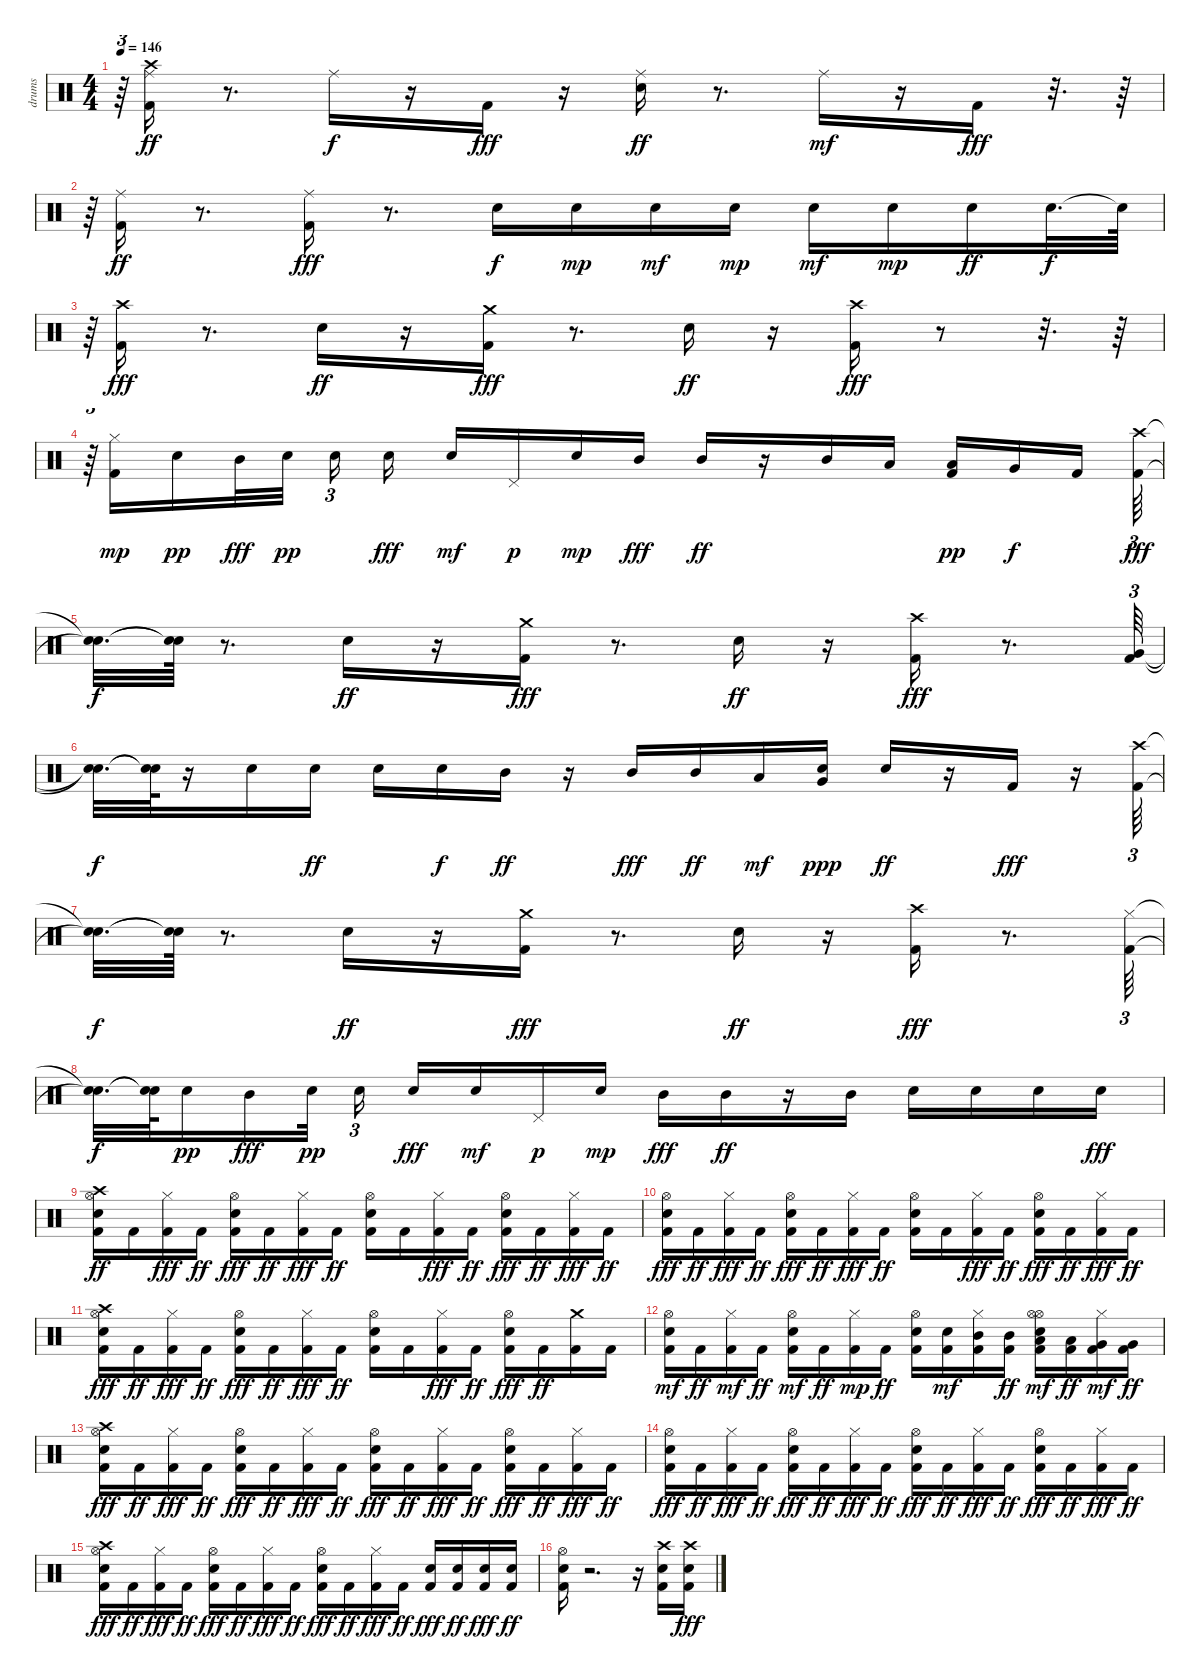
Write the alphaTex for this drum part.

\track ("drums" "drums") {instrument percussion}
\staff {score}
\articulation defaults
\ts (4 4)
\tempo 146
\clef neutral
\ks c
r.64{tu (3 2) dy mf} ("Crash high (hit)" "Kick (hit) 2" "Ride (middle)").16{dy ff} r.8{d} "Ride (middle)".16{dy f} r.16 "Kick (hit) 2".16{dy fff} r.16 ("Electric Snare (hit)" "Ride (middle)").16{dy ff} r.8{d} "Ride (middle)".16{dy mf} r.16 "Kick (hit) 2".16{dy fff} r.32{d} r.64 |
r.64{tu (3 2)} ("Kick (hit) 2" "Ride (middle)").16{dy ff} r.8{d} ("Kick (hit) 2" "Ride (middle)").16{dy fff} r.8{d} "Electric Snare (hit)".16{dy f} "Electric Snare (hit)".16{dy mp} "Electric Snare (hit)".16{dy mf} "Electric Snare (hit)".16{dy mp} "Electric Snare (hit)".16{dy mf} "Electric Snare (hit)".16{dy mp} "Electric Snare (hit)".16{dy ff} "Electric Snare (hit)".32{d dy f} "Snare (hit)"{t}.64 |
r.64{tu (3 2)} ("Crash high (hit)" "Kick (hit) 2").16{dy fff} r.8{d} "Electric Snare (hit)".16{dy ff} r.16 ("Kick (hit) 2" "Crash medium (hit)").16{dy fff} r.8{d} "Electric Snare (hit)".16{dy ff} r.16 ("Crash high (hit)" "Kick (hit) 2").16{dy fff} r.8 r.32{d} r.64 |
r.64{tu (3 2)} ("Kick (hit) 2" "Hi-Hat (closed)").16{dy mp} "Snare (hit) 2".16{dy pp} "Mid Tom (hit)".32{dy fff} "Snare (hit) 2".32{dy pp beam splitsecondary} "Snare (hit) 2".16{tu (3 2)} "Electric Snare (hit)".16{dy fff} "Electric Snare (hit)".16{dy mf} "Pedal Hi-Hat (hit)".16{dy p} "Snare (hit) 2".16{dy mp} "Mid Tom (hit)".16{dy fff} "Mid Tom (hit)".16{dy ff} r.16 "Mid Tom (hit)".16 "Low Tom (hit)".16 ("Low Tom (hit)" "Kick (hit) 2").16{dy pp} "Very Low Tom (hit)".16{dy f} "Kick (hit) 2".16{beam splitsecondary} ("Crash high (hit)" "Kick (hit) 2").64{tu (3 2) dy fff} |
("Snare (hit)"{t} "Snare (hit)"{t}).32{d dy f} ("Snare (hit)"{t} "Snare (hit)"{t}).64 r.8{d} "Electric Snare (hit)".16{dy ff} r.16 ("Kick (hit) 2" "Crash medium (hit)").16{dy fff} r.8{d} "Electric Snare (hit)".16{dy ff} r.16 ("Crash high (hit)" "Kick (hit) 2").16{dy fff} r.8{d} ("Very Low Tom (hit)" "Kick (hit) 2").64{tu (3 2)} |
("Snare (hit)"{t} "Snare (hit)"{t}).32{d dy f} ("Snare (hit)"{t} "Snare (hit)"{t}).64 r.16 "Electric Snare (hit)".16 "Snare (hit) 2".16{dy ff} "Electric Snare (hit)".16 "Electric Snare (hit)".16{dy f} "Mid Tom (hit)".16{dy ff} r.16 "Mid Tom (hit)".16{dy fff} "Mid Tom (hit)".16{dy ff} "Low Tom (hit)".16{dy mf} ("Very Low Tom (hit)" "Electric Snare (hit)").16{dy ppp} "Electric Snare (hit)".16{dy ff} r.16 "Kick (hit) 2".16{dy fff} r.16 ("Crash high (hit)" "Kick (hit) 2").64{tu (3 2)} |
("Snare (hit)"{t} "Snare (hit)"{t}).32{d dy f} ("Snare (hit)"{t} "Snare (hit)"{t}).64 r.8{d} "Electric Snare (hit)".16{dy ff} r.16 ("Kick (hit) 2" "Crash medium (hit)").16{dy fff} r.8{d} "Electric Snare (hit)".16{dy ff} r.16 ("Crash high (hit)" "Kick (hit) 2").16{dy fff} r.8{d} ("Hi-Hat (closed)" "Kick (hit) 2").64{tu (3 2)} |
("Snare (hit)"{t} "Snare (hit)"{t}).32{d dy f} ("Snare (hit)"{t} "Snare (hit)"{t}).64 "Snare (hit) 2".16{dy pp} "Mid Tom (hit)".16{dy fff} "Snare (hit) 2".32{dy pp beam splitsecondary} "Snare (hit) 2".16{tu (3 2)} "Electric Snare (hit)".16{dy fff} "Electric Snare (hit)".16{dy mf} "Pedal Hi-Hat (hit)".16{dy p} "Snare (hit) 2".16{dy mp} "Mid Tom (hit)".16{dy fff} "Mid Tom (hit)".16{dy ff} r.16 "Mid Tom (hit)".16 "Electric Snare (hit)".16 "Electric Snare (hit)".16 "Electric Snare (hit)".16 "Electric Snare (hit)".16{dy fff} |
("Hi-Hat (open)" "Crash high (hit)" "Kick (hit) 2" "Electric Snare (hit)").16{dy ff} "Kick (hit) 2".16 ("Hi-Hat (closed)" "Kick (hit) 2").16{dy fff} "Kick (hit) 2".16{dy ff} ("Hi-Hat (open)" "Electric Snare (hit)" "Kick (hit) 2").16{dy fff} "Kick (hit) 2".16{dy ff} ("Hi-Hat (closed)" "Kick (hit) 2").16{dy fff} "Kick (hit) 2".16{dy ff} ("Hi-Hat (open)" "Kick (hit) 2" "Electric Snare (hit)").16 "Kick (hit) 2".16 ("Hi-Hat (closed)" "Kick (hit) 2").16{dy fff} "Kick (hit) 2".16{dy ff} ("Hi-Hat (open)" "Electric Snare (hit)" "Kick (hit) 2").16{dy fff} "Kick (hit) 2".16{dy ff} ("Hi-Hat (closed)" "Kick (hit) 2").16{dy fff} "Kick (hit) 2".16{dy ff} |
("Hi-Hat (open)" "Electric Snare (hit)" "Kick (hit) 2").16{dy fff} "Kick (hit) 2".16{dy ff} ("Hi-Hat (closed)" "Kick (hit) 2").16{dy fff} "Kick (hit) 2".16{dy ff} ("Hi-Hat (open)" "Electric Snare (hit)" "Kick (hit) 2").16{dy fff} "Kick (hit) 2".16{dy ff} ("Hi-Hat (closed)" "Kick (hit) 2").16{dy fff} "Kick (hit) 2".16{dy ff} ("Hi-Hat (open)" "Kick (hit) 2" "Electric Snare (hit)").16 "Kick (hit) 2".16 ("Hi-Hat (closed)" "Kick (hit) 2").16{dy fff} "Kick (hit) 2".16{dy ff} ("Hi-Hat (open)" "Electric Snare (hit)" "Kick (hit) 2").16{dy fff} "Kick (hit) 2".16{dy ff} ("Hi-Hat (closed)" "Kick (hit) 2").16{dy fff} "Kick (hit) 2".16{dy ff} |
("Hi-Hat (open)" "Crash high (hit)" "Electric Snare (hit)" "Kick (hit) 2").16{dy fff} "Kick (hit) 2".16{dy ff} ("Hi-Hat (closed)" "Kick (hit) 2").16{dy fff} "Kick (hit) 2".16{dy ff} ("Hi-Hat (open)" "Electric Snare (hit)" "Kick (hit) 2").16{dy fff} "Kick (hit) 2".16{dy ff} ("Hi-Hat (closed)" "Kick (hit) 2").16{dy fff} "Kick (hit) 2".16{dy ff} ("Hi-Hat (open)" "Kick (hit) 2" "Electric Snare (hit)").16 "Kick (hit) 2".16 ("Hi-Hat (closed)" "Kick (hit) 2").16{dy fff} "Kick (hit) 2".16{dy ff} ("Hi-Hat (open)" "Electric Snare (hit)" "Kick (hit) 2").16{dy fff} "Kick (hit) 2".16{dy ff} ("Kick (hit) 2" "Crash medium (hit)").16 "Kick (hit) 2".16 |
("Kick (hit) 2" "Electric Snare (hit)" "Hi-Hat (open)").16{dy mf} "Kick (hit) 2".16{dy ff} ("Kick (hit) 2" "Hi-Hat (closed)").16{dy mf} "Kick (hit) 2".16{dy ff} ("Kick (hit) 2" "Electric Snare (hit)" "Hi-Hat (open)").16{dy mf} "Kick (hit) 2".16{dy ff} ("Kick (hit) 2" "Hi-Hat (closed)").16{dy mp} "Kick (hit) 2".16{dy ff} ("Hi-Hat (open)" "Kick (hit) 2" "Electric Snare (hit)").16 ("Kick (hit) 2" "Snare (hit) 2").16{dy mf} ("Mid Tom (hit)" "Kick (hit) 2" "Hi-Hat (closed)").16 ("Mid Tom (hit)" "Kick (hit) 2").16{dy ff} ("Low Tom (hit)" "Kick (hit) 2" "Electric Snare (hit)" "Hi-Hat (open)" "Hi-Hat (open)").16{dy mf} ("Low Tom (hit)" "Kick (hit) 2").16{dy ff} ("Very Low Tom (hit)" "Kick (hit) 2" "Hi-Hat (closed)").16{dy mf} ("Very Low Tom (hit)" "Kick (hit) 2").16{dy ff} |
("Hi-Hat (open)" "Crash high (hit)" "Electric Snare (hit)" "Kick (hit) 2").16{dy fff} "Kick (hit) 2".16{dy ff} ("Hi-Hat (closed)" "Kick (hit) 2").16{dy fff} "Kick (hit) 2".16{dy ff} ("Hi-Hat (open)" "Electric Snare (hit)" "Kick (hit) 2").16{dy fff} "Kick (hit) 2".16{dy ff} ("Hi-Hat (closed)" "Kick (hit) 2").16{dy fff} "Kick (hit) 2".16{dy ff} ("Hi-Hat (open)" "Electric Snare (hit)" "Kick (hit) 2").16{dy fff} "Kick (hit) 2".16{dy ff} ("Hi-Hat (closed)" "Kick (hit) 2").16{dy fff} "Kick (hit) 2".16{dy ff} ("Hi-Hat (open)" "Electric Snare (hit)" "Kick (hit) 2").16{dy fff} "Kick (hit) 2".16{dy ff} ("Hi-Hat (closed)" "Kick (hit) 2").16{dy fff} "Kick (hit) 2".16{dy ff} |
("Hi-Hat (open)" "Electric Snare (hit)" "Kick (hit) 2").16{dy fff} "Kick (hit) 2".16{dy ff} ("Hi-Hat (closed)" "Kick (hit) 2").16{dy fff} "Kick (hit) 2".16{dy ff} ("Hi-Hat (open)" "Electric Snare (hit)" "Kick (hit) 2").16{dy fff} "Kick (hit) 2".16{dy ff} ("Hi-Hat (closed)" "Kick (hit) 2").16{dy fff} "Kick (hit) 2".16{dy ff} ("Hi-Hat (open)" "Electric Snare (hit)" "Kick (hit) 2").16{dy fff} "Kick (hit) 2".16{dy ff} ("Hi-Hat (closed)" "Kick (hit) 2").16{dy fff} "Kick (hit) 2".16{dy ff} ("Hi-Hat (open)" "Electric Snare (hit)" "Kick (hit) 2").16{dy fff} "Kick (hit) 2".16{dy ff} ("Hi-Hat (closed)" "Kick (hit) 2").16{dy fff} "Kick (hit) 2".16{dy ff} |
("Hi-Hat (open)" "Crash high (hit)" "Electric Snare (hit)" "Kick (hit) 2").16{dy fff} "Kick (hit) 2".16{dy ff} ("Hi-Hat (closed)" "Kick (hit) 2").16{dy fff} "Kick (hit) 2".16{dy ff} ("Hi-Hat (open)" "Electric Snare (hit)" "Kick (hit) 2").16{dy fff} "Kick (hit) 2".16{dy ff} ("Hi-Hat (closed)" "Kick (hit) 2").16{dy fff} "Kick (hit) 2".16{dy ff} ("Hi-Hat (open)" "Electric Snare (hit)" "Kick (hit) 2").16{dy fff} "Kick (hit) 2".16{dy ff} ("Hi-Hat (closed)" "Kick (hit) 2").16{dy fff} "Kick (hit) 2".16{dy ff} ("Electric Snare (hit)" "Kick (hit) 2").16{dy fff} ("Electric Snare (hit)" "Kick (hit) 2").16{dy ff} ("Electric Snare (hit)" "Kick (hit) 2").16{dy fff} ("Electric Snare (hit)" "Kick (hit) 2").16{dy ff} |
("Snare (hit) 2" "Kick (hit) 2" "Hi-Hat (open)").16 r.2{d} r.16 ("Kick (hit) 2" "Snare (hit) 2" "Crash high (hit)").16 ("Kick (hit) 2" "Crash high (hit)" "Snare (hit) 2").16{dy fff}
